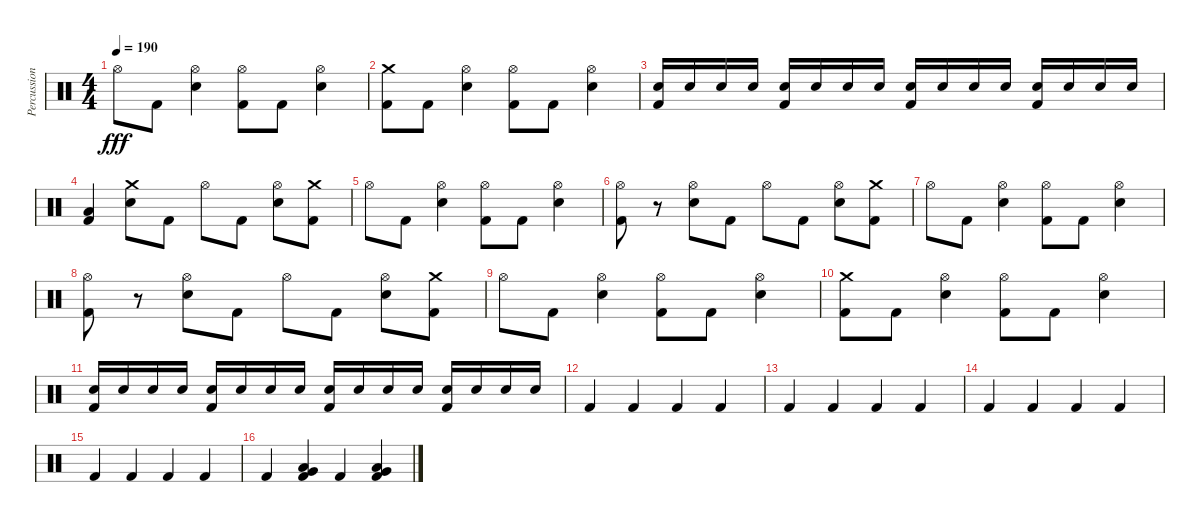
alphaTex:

\track ("Percussion" "Percussion") {instrument percussion}
\staff {score}
\articulation defaults
\ts (4 4)
\tempo 190
\clef neutral
\ks c "Hi-Hat (open)".8{dy fff} "Kick (hit) 2".8
("Hi-Hat (open)" "Electric Snare (hit)").4 ("Hi-Hat (open)" "Kick (hit) 2").8 "Kick (hit) 2".8 ("Hi-Hat (open)" "Electric Snare (hit)").4 |
("Crash medium (hit)" "Kick (hit) 2").8 "Kick (hit) 2".8 ("Hi-Hat (open)" "Electric Snare (hit)").4 ("Hi-Hat (open)" "Kick (hit) 2").8 "Kick (hit) 2".8 ("Hi-Hat (open)" "Electric Snare (hit)").4 |
("Electric Snare (hit)" "Kick (hit) 2").16 "Electric Snare (hit)".16 "Electric Snare (hit)".16 "Electric Snare (hit)".16 ("Electric Snare (hit)" "Kick (hit) 2").16 "Electric Snare (hit)".16 "Electric Snare (hit)".16 "Electric Snare (hit)".16 ("Electric Snare (hit)" "Kick (hit) 2").16 "Electric Snare (hit)".16 "Electric Snare (hit)".16 "Electric Snare (hit)".16 ("Electric Snare (hit)" "Kick (hit) 2").16 "Electric Snare (hit)".16 "Electric Snare (hit)".16 "Electric Snare (hit)".16 |
("Low Floor Tom (hit)" "Kick (hit) 2").4 ("Crash medium (hit)" "Electric Snare (hit)").8 "Kick (hit) 2".8 "Hi-Hat (open)".8 "Kick (hit) 2".8 ("Hi-Hat (open)" "Electric Snare (hit)").8 ("Crash medium (hit)" "Kick (hit) 2").8 |
"Hi-Hat (open)".8 "Kick (hit) 2".8 ("Hi-Hat (open)" "Electric Snare (hit)").4 ("Hi-Hat (open)" "Kick (hit) 2").8 "Kick (hit) 2".8 ("Hi-Hat (open)" "Electric Snare (hit)").4 |
("Hi-Hat (open)" "Kick (hit) 2").8 r.8 ("Hi-Hat (open)" "Electric Snare (hit)").8 "Kick (hit) 2".8 "Hi-Hat (open)".8 "Kick (hit) 2".8 ("Hi-Hat (open)" "Electric Snare (hit)").8 ("Crash medium (hit)" "Kick (hit) 2").8 |
"Hi-Hat (open)".8 "Kick (hit) 2".8 ("Hi-Hat (open)" "Electric Snare (hit)").4 ("Hi-Hat (open)" "Kick (hit) 2").8 "Kick (hit) 2".8 ("Hi-Hat (open)" "Electric Snare (hit)").4 |
("Hi-Hat (open)" "Kick (hit) 2").8 r.8 ("Hi-Hat (open)" "Electric Snare (hit)").8 "Kick (hit) 2".8 "Hi-Hat (open)".8 "Kick (hit) 2".8 ("Hi-Hat (open)" "Electric Snare (hit)").8 ("Crash medium (hit)" "Kick (hit) 2").8 |
"Hi-Hat (open)".8 "Kick (hit) 2".8 ("Hi-Hat (open)" "Electric Snare (hit)").4 ("Hi-Hat (open)" "Kick (hit) 2").8 "Kick (hit) 2".8 ("Hi-Hat (open)" "Electric Snare (hit)").4 |
("Crash medium (hit)" "Kick (hit) 2").8 "Kick (hit) 2".8 ("Hi-Hat (open)" "Electric Snare (hit)").4 ("Hi-Hat (open)" "Kick (hit) 2").8 "Kick (hit) 2".8 ("Hi-Hat (open)" "Electric Snare (hit)").4 |
("Electric Snare (hit)" "Kick (hit) 2").16 "Electric Snare (hit)".16 "Electric Snare (hit)".16 "Electric Snare (hit)".16 ("Electric Snare (hit)" "Kick (hit) 2").16 "Electric Snare (hit)".16 "Electric Snare (hit)".16 "Electric Snare (hit)".16 ("Electric Snare (hit)" "Kick (hit) 2").16 "Electric Snare (hit)".16 "Electric Snare (hit)".16 "Electric Snare (hit)".16 ("Electric Snare (hit)" "Kick (hit) 2").16 "Electric Snare (hit)".16 "Electric Snare (hit)".16 "Electric Snare (hit)".16 |
"Kick (hit) 2".4 "Kick (hit) 2".4 "Kick (hit) 2".4 "Kick (hit) 2".4 |
"Kick (hit) 2".4 "Kick (hit) 2".4 "Kick (hit) 2".4 "Kick (hit) 2".4 |
"Kick (hit) 2".4 "Kick (hit) 2".4 "Kick (hit) 2".4 "Kick (hit) 2".4 |
"Kick (hit) 2".4 "Kick (hit) 2".4 "Kick (hit) 2".4 "Kick (hit) 2".4 |
"Kick (hit) 2".4 ("Low Floor Tom (hit)" "Very Low Tom (hit)" "Kick (hit) 2").4 "Kick (hit) 2".4 ("Low Floor Tom (hit)" "Very Low Tom (hit)" "Kick (hit) 2").4
